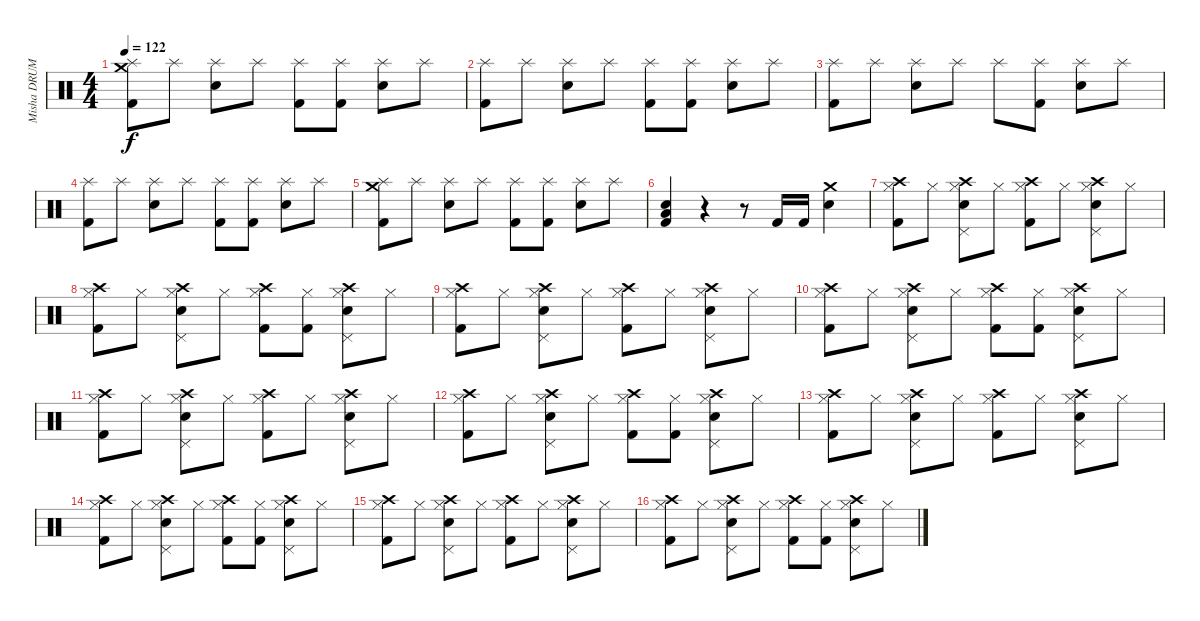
\track ("Misha DRUMS" "Misha DRUM") {instrument percussion}
\staff {score}
\articulation defaults
\ts (4 4)
\tempo 122
\clef neutral
\ks c
("Splash (hit)" "Crash medium (hit)" "Kick (hit) 2").8{dy f} "Splash (hit)".8 ("Splash (hit)" "Snare (hit) 2").8 "Splash (hit)".8 ("Splash (hit)" "Kick (hit) 2").8 ("Splash (hit)" "Kick (hit) 2").8 ("Splash (hit)" "Snare (hit) 2").8 "Splash (hit)".8 |
("Splash (hit)" "Kick (hit) 2").8 "Splash (hit)".8 ("Splash (hit)" "Snare (hit) 2").8 "Splash (hit)".8 ("Splash (hit)" "Kick (hit) 2").8 ("Splash (hit)" "Kick (hit) 2").8 ("Splash (hit)" "Snare (hit) 2").8 "Splash (hit)".8 |
("Splash (hit)" "Kick (hit) 2").8 "Splash (hit)".8 ("Splash (hit)" "Snare (hit) 2").8 "Splash (hit)".8 "Splash (hit)".8 ("Splash (hit)" "Kick (hit) 2").8 ("Splash (hit)" "Snare (hit) 2").8 "Splash (hit)".8 |
("Splash (hit)" "Kick (hit) 2").8 "Splash (hit)".8 ("Splash (hit)" "Snare (hit) 2").8 "Splash (hit)".8 ("Splash (hit)" "Kick (hit) 2").8 ("Splash (hit)" "Kick (hit) 2").8 ("Splash (hit)" "Snare (hit) 2").8 "Splash (hit)".8 |
("Splash (hit)" "Crash medium (hit)" "Kick (hit) 2").8 "Splash (hit)".8 ("Splash (hit)" "Snare (hit) 2").8 "Splash (hit)".8 ("Splash (hit)" "Kick (hit) 2").8 ("Splash (hit)" "Kick (hit) 2").8 ("Splash (hit)" "Snare (hit) 2").8 "Splash (hit)".8 |
("Low Floor Tom (hit)" "Snare (hit) 2" "Kick (hit) 2").4 r.4 r.8 "Kick (hit) 2".16 "Kick (hit) 2".16 ("Crash medium (hit)" "Snare (hit) 2").4 |
("Hi-Hat (closed)" "Crash high (hit)" "Kick (hit) 2").8 "Hi-Hat (closed)".8 ("Hi-Hat (closed)" "Crash high (hit)" "Pedal Hi-Hat (hit)" "Snare (hit) 2").8 "Hi-Hat (closed)".8 ("Hi-Hat (closed)" "Crash high (hit)" "Kick (hit) 2").8 "Hi-Hat (closed)".8 ("Hi-Hat (closed)" "Crash high (hit)" "Pedal Hi-Hat (hit)" "Snare (hit) 2").8 "Hi-Hat (closed)".8 |
("Hi-Hat (closed)" "Crash high (hit)" "Kick (hit) 2").8 "Hi-Hat (closed)".8 ("Hi-Hat (closed)" "Crash high (hit)" "Pedal Hi-Hat (hit)" "Snare (hit) 2").8 "Hi-Hat (closed)".8 ("Hi-Hat (closed)" "Crash high (hit)" "Kick (hit) 2").8 ("Hi-Hat (closed)" "Kick (hit) 2").8 ("Hi-Hat (closed)" "Crash high (hit)" "Pedal Hi-Hat (hit)" "Snare (hit) 2").8 "Hi-Hat (closed)".8 |
("Hi-Hat (closed)" "Crash high (hit)" "Kick (hit) 2").8 "Hi-Hat (closed)".8 ("Hi-Hat (closed)" "Crash high (hit)" "Pedal Hi-Hat (hit)" "Snare (hit) 2").8 "Hi-Hat (closed)".8 ("Hi-Hat (closed)" "Crash high (hit)" "Kick (hit) 2").8 "Hi-Hat (closed)".8 ("Hi-Hat (closed)" "Crash high (hit)" "Pedal Hi-Hat (hit)" "Snare (hit) 2").8 "Hi-Hat (closed)".8 |
("Hi-Hat (closed)" "Crash high (hit)" "Kick (hit) 2").8 "Hi-Hat (closed)".8 ("Hi-Hat (closed)" "Crash high (hit)" "Pedal Hi-Hat (hit)" "Snare (hit) 2").8 "Hi-Hat (closed)".8 ("Hi-Hat (closed)" "Crash high (hit)" "Kick (hit) 2").8 ("Hi-Hat (closed)" "Kick (hit) 2").8 ("Hi-Hat (closed)" "Crash high (hit)" "Pedal Hi-Hat (hit)" "Snare (hit) 2").8 "Hi-Hat (closed)".8 |
("Hi-Hat (closed)" "Crash high (hit)" "Kick (hit) 2").8 "Hi-Hat (closed)".8 ("Hi-Hat (closed)" "Crash high (hit)" "Pedal Hi-Hat (hit)" "Snare (hit) 2").8 "Hi-Hat (closed)".8 ("Hi-Hat (closed)" "Crash high (hit)" "Kick (hit) 2").8 "Hi-Hat (closed)".8 ("Hi-Hat (closed)" "Crash high (hit)" "Pedal Hi-Hat (hit)" "Snare (hit) 2").8 "Hi-Hat (closed)".8 |
("Hi-Hat (closed)" "Crash high (hit)" "Kick (hit) 2").8 "Hi-Hat (closed)".8 ("Hi-Hat (closed)" "Crash high (hit)" "Pedal Hi-Hat (hit)" "Snare (hit) 2").8 "Hi-Hat (closed)".8 ("Hi-Hat (closed)" "Crash high (hit)" "Kick (hit) 2").8 ("Hi-Hat (closed)" "Kick (hit) 2").8 ("Hi-Hat (closed)" "Crash high (hit)" "Pedal Hi-Hat (hit)" "Snare (hit) 2").8 "Hi-Hat (closed)".8 |
("Hi-Hat (closed)" "Crash high (hit)" "Kick (hit) 2").8 "Hi-Hat (closed)".8 ("Hi-Hat (closed)" "Crash high (hit)" "Pedal Hi-Hat (hit)" "Snare (hit) 2").8 "Hi-Hat (closed)".8 ("Hi-Hat (closed)" "Crash high (hit)" "Kick (hit) 2").8 "Hi-Hat (closed)".8 ("Hi-Hat (closed)" "Crash high (hit)" "Pedal Hi-Hat (hit)" "Snare (hit) 2").8 "Hi-Hat (closed)".8 |
("Hi-Hat (closed)" "Crash high (hit)" "Kick (hit) 2").8 "Hi-Hat (closed)".8 ("Hi-Hat (closed)" "Crash high (hit)" "Pedal Hi-Hat (hit)" "Snare (hit) 2").8 "Hi-Hat (closed)".8 ("Hi-Hat (closed)" "Crash high (hit)" "Kick (hit) 2").8 ("Hi-Hat (closed)" "Kick (hit) 2").8 ("Hi-Hat (closed)" "Crash high (hit)" "Pedal Hi-Hat (hit)" "Snare (hit) 2").8 "Hi-Hat (closed)".8 |
("Hi-Hat (closed)" "Crash high (hit)" "Kick (hit) 2").8 "Hi-Hat (closed)".8 ("Hi-Hat (closed)" "Crash high (hit)" "Pedal Hi-Hat (hit)" "Snare (hit) 2").8 "Hi-Hat (closed)".8 ("Hi-Hat (closed)" "Crash high (hit)" "Kick (hit) 2").8 "Hi-Hat (closed)".8 ("Hi-Hat (closed)" "Crash high (hit)" "Pedal Hi-Hat (hit)" "Snare (hit) 2").8 "Hi-Hat (closed)".8 |
("Hi-Hat (closed)" "Crash high (hit)" "Kick (hit) 2").8 "Hi-Hat (closed)".8 ("Hi-Hat (closed)" "Crash high (hit)" "Pedal Hi-Hat (hit)" "Snare (hit) 2").8 "Hi-Hat (closed)".8 ("Hi-Hat (closed)" "Crash high (hit)" "Kick (hit) 2").8 ("Hi-Hat (closed)" "Kick (hit) 2").8 ("Hi-Hat (closed)" "Crash high (hit)" "Pedal Hi-Hat (hit)" "Snare (hit) 2").8 "Hi-Hat (closed)".8
